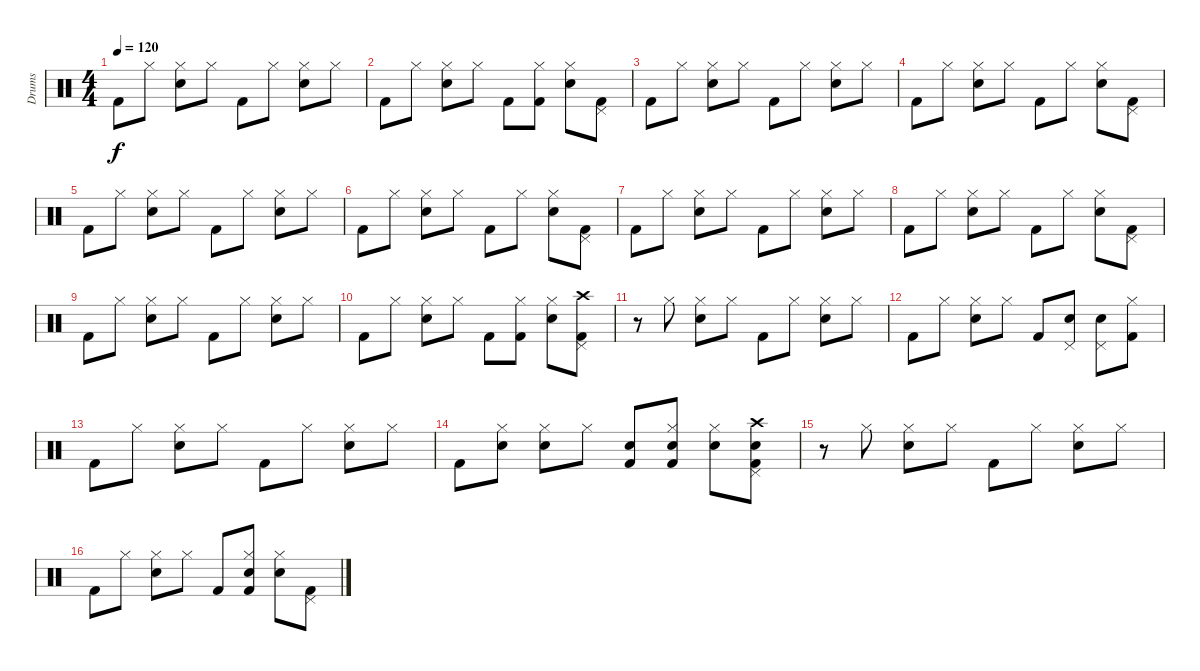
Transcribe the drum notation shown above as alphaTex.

\track ("Drums" "Drums") {instrument percussion}
\staff {score}
\articulation defaults
\ts (4 4)
\tempo 120
\clef neutral
\ks c "Kick (hit) 2".8{dy f} "Hi-Hat (closed)".8
("Hi-Hat (closed)" "Snare (hit) 2").8 "Hi-Hat (closed)".8 "Kick (hit) 2".8 "Hi-Hat (closed)".8 ("Hi-Hat (closed)" "Snare (hit) 2").8 "Hi-Hat (closed)".8 |
"Kick (hit) 2".8 "Hi-Hat (closed)".8 ("Hi-Hat (closed)" "Snare (hit) 2").8 "Hi-Hat (closed)".8 "Kick (hit) 2".8 ("Hi-Hat (closed)" "Kick (hit) 2").8 ("Hi-Hat (closed)" "Snare (hit) 2").8 ("Pedal Hi-Hat (hit)" "Kick (hit) 2").8 |
"Kick (hit) 2".8 "Hi-Hat (closed)".8 ("Hi-Hat (closed)" "Snare (hit) 2").8 "Hi-Hat (closed)".8 "Kick (hit) 2".8 "Hi-Hat (closed)".8 ("Hi-Hat (closed)" "Snare (hit) 2").8 "Hi-Hat (closed)".8 |
"Kick (hit) 2".8 "Hi-Hat (closed)".8 ("Hi-Hat (closed)" "Snare (hit) 2").8 "Hi-Hat (closed)".8 "Kick (hit) 2".8 "Hi-Hat (closed)".8 ("Hi-Hat (closed)" "Snare (hit) 2").8 ("Pedal Hi-Hat (hit)" "Kick (hit) 2").8 |
"Kick (hit) 2".8 "Hi-Hat (closed)".8 ("Hi-Hat (closed)" "Snare (hit) 2").8 "Hi-Hat (closed)".8 "Kick (hit) 2".8 "Hi-Hat (closed)".8 ("Hi-Hat (closed)" "Snare (hit) 2").8 "Hi-Hat (closed)".8 |
"Kick (hit) 2".8 "Hi-Hat (closed)".8 ("Hi-Hat (closed)" "Snare (hit) 2").8 "Hi-Hat (closed)".8 "Kick (hit) 2".8 "Hi-Hat (closed)".8 ("Hi-Hat (closed)" "Snare (hit) 2").8 ("Pedal Hi-Hat (hit)" "Kick (hit) 2").8 |
"Kick (hit) 2".8 "Hi-Hat (closed)".8 ("Hi-Hat (closed)" "Snare (hit) 2").8 "Hi-Hat (closed)".8 "Kick (hit) 2".8 "Hi-Hat (closed)".8 ("Hi-Hat (closed)" "Snare (hit) 2").8 "Hi-Hat (closed)".8 |
"Kick (hit) 2".8 "Hi-Hat (closed)".8 ("Hi-Hat (closed)" "Snare (hit) 2").8 "Hi-Hat (closed)".8 "Kick (hit) 2".8 "Hi-Hat (closed)".8 ("Hi-Hat (closed)" "Snare (hit) 2").8 ("Pedal Hi-Hat (hit)" "Kick (hit) 2").8 |
"Kick (hit) 2".8 "Hi-Hat (closed)".8 ("Hi-Hat (closed)" "Snare (hit) 2").8 "Hi-Hat (closed)".8 "Kick (hit) 2".8 "Hi-Hat (closed)".8 ("Hi-Hat (closed)" "Snare (hit) 2").8 "Hi-Hat (closed)".8 |
"Kick (hit) 2".8 "Hi-Hat (closed)".8 ("Hi-Hat (closed)" "Snare (hit) 2").8 "Hi-Hat (closed)".8 "Kick (hit) 2".8 ("Hi-Hat (closed)" "Kick (hit) 2").8 ("Hi-Hat (closed)" "Snare (hit) 2").8 ("Pedal Hi-Hat (hit)" "Crash high (hit)" "Kick (hit) 2").8 |
r.8 "Hi-Hat (closed)".8 ("Hi-Hat (closed)" "Snare (hit) 2").8 "Hi-Hat (closed)".8 "Kick (hit) 2".8 "Hi-Hat (closed)".8 ("Hi-Hat (closed)" "Snare (hit) 2").8 "Hi-Hat (closed)".8 |
"Kick (hit) 2".8 "Hi-Hat (closed)".8 ("Hi-Hat (closed)" "Snare (hit) 2").8 "Hi-Hat (closed)".8 "Kick (hit) 2".8 ("Pedal Hi-Hat (hit)" "Snare (hit) 2").8 ("Pedal Hi-Hat (hit)" "Snare (hit) 2").8 ("Hi-Hat (closed)" "Kick (hit) 2").8 |
"Kick (hit) 2".8 "Hi-Hat (closed)".8 ("Hi-Hat (closed)" "Snare (hit) 2").8 "Hi-Hat (closed)".8 "Kick (hit) 2".8 "Hi-Hat (closed)".8 ("Hi-Hat (closed)" "Snare (hit) 2").8 "Hi-Hat (closed)".8 |
"Kick (hit) 2".8 ("Hi-Hat (closed)" "Snare (hit) 2").8 ("Hi-Hat (closed)" "Snare (hit) 2").8 "Hi-Hat (closed)".8 ("Snare (hit) 2" "Kick (hit) 2").8 ("Hi-Hat (closed)" "Snare (hit) 2" "Kick (hit) 2").8 ("Hi-Hat (closed)" "Snare (hit) 2").8 ("Pedal Hi-Hat (hit)" "Crash high (hit)" "Snare (hit) 2" "Kick (hit) 2").8 |
r.8 "Hi-Hat (closed)".8 ("Hi-Hat (closed)" "Snare (hit) 2").8 "Hi-Hat (closed)".8 "Kick (hit) 2".8 "Hi-Hat (closed)".8 ("Hi-Hat (closed)" "Snare (hit) 2").8 "Hi-Hat (closed)".8 |
"Kick (hit) 2".8 "Hi-Hat (closed)".8 ("Hi-Hat (closed)" "Snare (hit) 2").8 "Hi-Hat (closed)".8 "Kick (hit) 2".8 ("Hi-Hat (closed)" "Snare (hit) 2" "Kick (hit) 2").8 ("Hi-Hat (closed)" "Snare (hit) 2").8 ("Pedal Hi-Hat (hit)" "Kick (hit) 2").8
